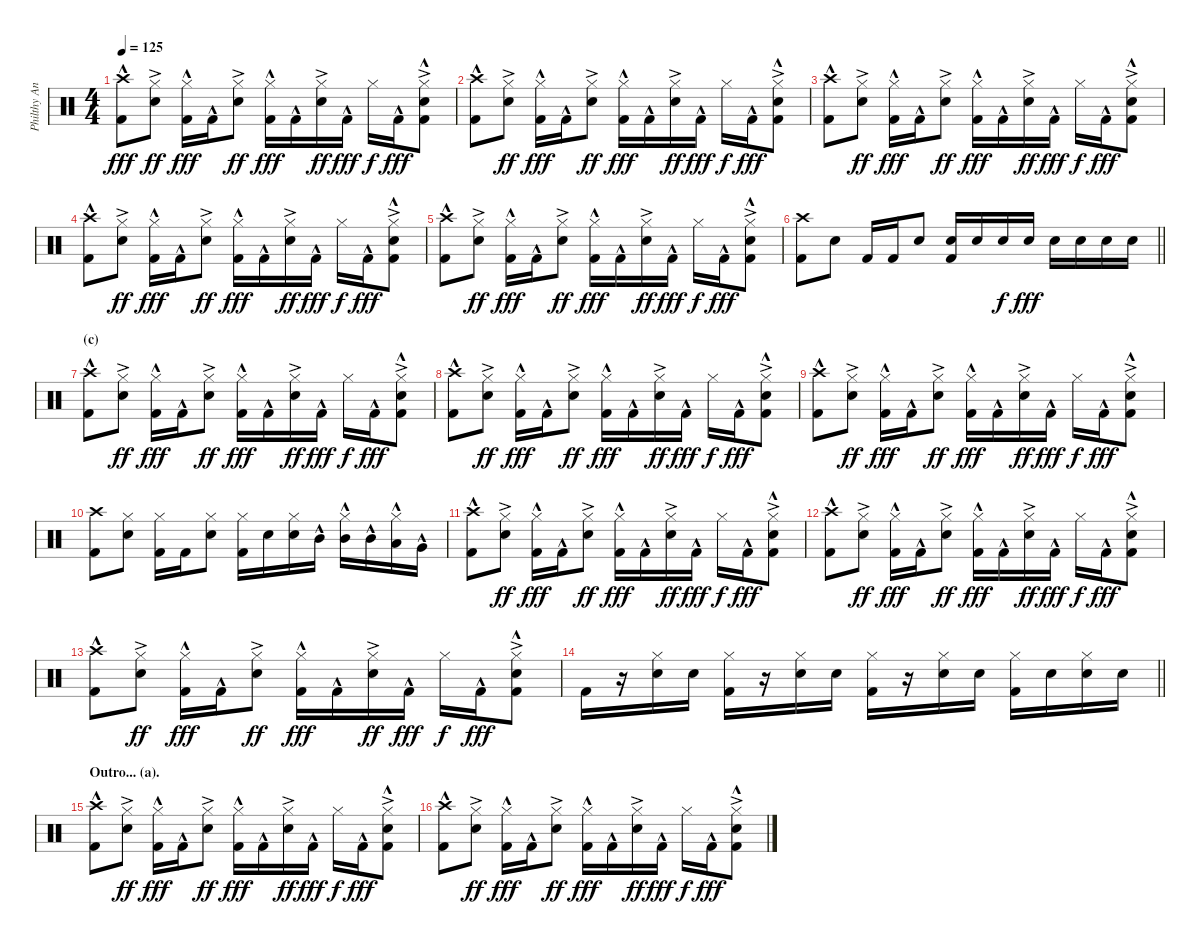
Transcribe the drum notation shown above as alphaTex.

\track ("Philthy Animal Taylor" "Philthy An") {instrument percussion}
\staff {score}
\articulation defaults
\ts (4 4)
\tempo 125
\clef neutral
\ks c
("Crash high (hit)" "Kick (hit) 2"{hac}).8{dy fff} ("Hi-Hat (closed)" "Electric Snare (hit)"{ac}).8{dy ff} ("Hi-Hat (closed)" "Kick (hit) 2"{hac}).16{dy fff} "Kick (hit) 2"{hac}.16 ("Hi-Hat (closed)" "Electric Snare (hit)"{ac}).8{dy ff} ("Hi-Hat (closed)" "Kick (hit) 2"{hac}).16{dy fff} "Kick (hit) 2"{hac}.16 ("Hi-Hat (closed)" "Electric Snare (hit)"{ac}).16{dy ff} "Kick (hit) 2"{hac}.16{dy fff} "Hi-Hat (closed)".16{dy f} "Kick (hit) 2"{hac}.16{dy fff} ("Hi-Hat (closed)" "Electric Snare (hit)"{ac} "Kick (hit) 2"{hac}).8 |
("Crash high (hit)" "Kick (hit) 2"{hac}).8 ("Hi-Hat (closed)" "Electric Snare (hit)"{ac}).8{dy ff} ("Hi-Hat (closed)" "Kick (hit) 2"{hac}).16{dy fff} "Kick (hit) 2"{hac}.16 ("Hi-Hat (closed)" "Electric Snare (hit)"{ac}).8{dy ff} ("Hi-Hat (closed)" "Kick (hit) 2"{hac}).16{dy fff} "Kick (hit) 2"{hac}.16 ("Hi-Hat (closed)" "Electric Snare (hit)"{ac}).16{dy ff} "Kick (hit) 2"{hac}.16{dy fff} "Hi-Hat (closed)".16{dy f} "Kick (hit) 2"{hac}.16{dy fff} ("Hi-Hat (closed)" "Electric Snare (hit)"{ac} "Kick (hit) 2"{hac}).8 |
("Crash high (hit)" "Kick (hit) 2"{hac}).8 ("Hi-Hat (closed)" "Electric Snare (hit)"{ac}).8{dy ff} ("Hi-Hat (closed)" "Kick (hit) 2"{hac}).16{dy fff} "Kick (hit) 2"{hac}.16 ("Hi-Hat (closed)" "Electric Snare (hit)"{ac}).8{dy ff} ("Hi-Hat (closed)" "Kick (hit) 2"{hac}).16{dy fff} "Kick (hit) 2"{hac}.16 ("Hi-Hat (closed)" "Electric Snare (hit)"{ac}).16{dy ff} "Kick (hit) 2"{hac}.16{dy fff} "Hi-Hat (closed)".16{dy f} "Kick (hit) 2"{hac}.16{dy fff} ("Hi-Hat (closed)" "Electric Snare (hit)"{ac} "Kick (hit) 2"{hac}).8 |
("Crash high (hit)" "Kick (hit) 2"{hac}).8 ("Hi-Hat (closed)" "Electric Snare (hit)"{ac}).8{dy ff} ("Hi-Hat (closed)" "Kick (hit) 2"{hac}).16{dy fff} "Kick (hit) 2"{hac}.16 ("Hi-Hat (closed)" "Electric Snare (hit)"{ac}).8{dy ff} ("Hi-Hat (closed)" "Kick (hit) 2"{hac}).16{dy fff} "Kick (hit) 2"{hac}.16 ("Hi-Hat (closed)" "Electric Snare (hit)"{ac}).16{dy ff} "Kick (hit) 2"{hac}.16{dy fff} "Hi-Hat (closed)".16{dy f} "Kick (hit) 2"{hac}.16{dy fff} ("Hi-Hat (closed)" "Electric Snare (hit)"{ac} "Kick (hit) 2"{hac}).8 |
("Crash high (hit)" "Kick (hit) 2"{hac}).8 ("Hi-Hat (closed)" "Electric Snare (hit)"{ac}).8{dy ff} ("Hi-Hat (closed)" "Kick (hit) 2"{hac}).16{dy fff} "Kick (hit) 2"{hac}.16 ("Hi-Hat (closed)" "Electric Snare (hit)"{ac}).8{dy ff} ("Hi-Hat (closed)" "Kick (hit) 2"{hac}).16{dy fff} "Kick (hit) 2"{hac}.16 ("Hi-Hat (closed)" "Electric Snare (hit)"{ac}).16{dy ff} "Kick (hit) 2"{hac}.16{dy fff} "Hi-Hat (closed)".16{dy f} "Kick (hit) 2"{hac}.16{dy fff} ("Hi-Hat (closed)" "Electric Snare (hit)"{ac} "Kick (hit) 2"{hac}).8 |
\barLineRight lightlight
("Crash high (hit)" "Kick (hit) 2").8 "Electric Snare (hit)".8 "Kick (hit) 2".16 "Kick (hit) 2".16 "Electric Snare (hit)".8 ("Electric Snare (hit)" "Kick (hit) 2").16 "Electric Snare (hit)".16 "Electric Snare (hit)".16{dy f} "Electric Snare (hit)".16{dy fff} "Electric Snare (hit)".16 "Electric Snare (hit)".16 "Electric Snare (hit)".16 "Electric Snare (hit)".16 |
\section ("" "(c)")
("Crash high (hit)" "Kick (hit) 2"{hac}).8 ("Hi-Hat (closed)" "Electric Snare (hit)"{ac}).8{dy ff} ("Hi-Hat (closed)" "Kick (hit) 2"{hac}).16{dy fff} "Kick (hit) 2"{hac}.16 ("Hi-Hat (closed)" "Electric Snare (hit)"{ac}).8{dy ff} ("Hi-Hat (closed)" "Kick (hit) 2"{hac}).16{dy fff} "Kick (hit) 2"{hac}.16 ("Hi-Hat (closed)" "Electric Snare (hit)"{ac}).16{dy ff} "Kick (hit) 2"{hac}.16{dy fff} "Hi-Hat (closed)".16{dy f} "Kick (hit) 2"{hac}.16{dy fff} ("Hi-Hat (closed)" "Electric Snare (hit)"{ac} "Kick (hit) 2"{hac}).8 |
("Crash high (hit)" "Kick (hit) 2"{hac}).8 ("Hi-Hat (closed)" "Electric Snare (hit)"{ac}).8{dy ff} ("Hi-Hat (closed)" "Kick (hit) 2"{hac}).16{dy fff} "Kick (hit) 2"{hac}.16 ("Hi-Hat (closed)" "Electric Snare (hit)"{ac}).8{dy ff} ("Hi-Hat (closed)" "Kick (hit) 2"{hac}).16{dy fff} "Kick (hit) 2"{hac}.16 ("Hi-Hat (closed)" "Electric Snare (hit)"{ac}).16{dy ff} "Kick (hit) 2"{hac}.16{dy fff} "Hi-Hat (closed)".16{dy f} "Kick (hit) 2"{hac}.16{dy fff} ("Hi-Hat (closed)" "Electric Snare (hit)"{ac} "Kick (hit) 2"{hac}).8 |
("Crash high (hit)" "Kick (hit) 2"{hac}).8 ("Hi-Hat (closed)" "Electric Snare (hit)"{ac}).8{dy ff} ("Hi-Hat (closed)" "Kick (hit) 2"{hac}).16{dy fff} "Kick (hit) 2"{hac}.16 ("Hi-Hat (closed)" "Electric Snare (hit)"{ac}).8{dy ff} ("Hi-Hat (closed)" "Kick (hit) 2"{hac}).16{dy fff} "Kick (hit) 2"{hac}.16 ("Hi-Hat (closed)" "Electric Snare (hit)"{ac}).16{dy ff} "Kick (hit) 2"{hac}.16{dy fff} "Hi-Hat (closed)".16{dy f} "Kick (hit) 2"{hac}.16{dy fff} ("Hi-Hat (closed)" "Electric Snare (hit)"{ac} "Kick (hit) 2"{hac}).8 |
("Crash high (hit)" "Kick (hit) 2").8 ("Hi-Hat (closed)" "Electric Snare (hit)").8 ("Hi-Hat (closed)" "Kick (hit) 2").16 "Kick (hit) 2".16 ("Hi-Hat (closed)" "Electric Snare (hit)").8 ("Hi-Hat (closed)" "Kick (hit) 2").16 "Electric Snare (hit)".16 ("Hi-Hat (closed)" "Electric Snare (hit)").16 "Mid Tom (hit)"{hac}.16 ("Hi-Hat (closed)" "Mid Tom (hit)"{hac}).16 "Mid Tom (hit)"{hac}.16 ("Hi-Hat (closed)" "Low Tom (hit)"{hac}).16 "Very Low Tom (hit)"{hac}.16 |
("Crash high (hit)" "Kick (hit) 2"{hac}).8 ("Hi-Hat (closed)" "Electric Snare (hit)"{ac}).8{dy ff} ("Hi-Hat (closed)" "Kick (hit) 2"{hac}).16{dy fff} "Kick (hit) 2"{hac}.16 ("Hi-Hat (closed)" "Electric Snare (hit)"{ac}).8{dy ff} ("Hi-Hat (closed)" "Kick (hit) 2"{hac}).16{dy fff} "Kick (hit) 2"{hac}.16 ("Hi-Hat (closed)" "Electric Snare (hit)"{ac}).16{dy ff} "Kick (hit) 2"{hac}.16{dy fff} "Hi-Hat (closed)".16{dy f} "Kick (hit) 2"{hac}.16{dy fff} ("Hi-Hat (closed)" "Electric Snare (hit)"{ac} "Kick (hit) 2"{hac}).8 |
("Crash high (hit)" "Kick (hit) 2"{hac}).8 ("Hi-Hat (closed)" "Electric Snare (hit)"{ac}).8{dy ff} ("Hi-Hat (closed)" "Kick (hit) 2"{hac}).16{dy fff} "Kick (hit) 2"{hac}.16 ("Hi-Hat (closed)" "Electric Snare (hit)"{ac}).8{dy ff} ("Hi-Hat (closed)" "Kick (hit) 2"{hac}).16{dy fff} "Kick (hit) 2"{hac}.16 ("Hi-Hat (closed)" "Electric Snare (hit)"{ac}).16{dy ff} "Kick (hit) 2"{hac}.16{dy fff} "Hi-Hat (closed)".16{dy f} "Kick (hit) 2"{hac}.16{dy fff} ("Hi-Hat (closed)" "Electric Snare (hit)"{ac} "Kick (hit) 2"{hac}).8 |
("Crash high (hit)" "Kick (hit) 2"{hac}).8 ("Hi-Hat (closed)" "Electric Snare (hit)"{ac}).8{dy ff} ("Hi-Hat (closed)" "Kick (hit) 2"{hac}).16{dy fff} "Kick (hit) 2"{hac}.16 ("Hi-Hat (closed)" "Electric Snare (hit)"{ac}).8{dy ff} ("Hi-Hat (closed)" "Kick (hit) 2"{hac}).16{dy fff} "Kick (hit) 2"{hac}.16 ("Hi-Hat (closed)" "Electric Snare (hit)"{ac}).16{dy ff} "Kick (hit) 2"{hac}.16{dy fff} "Hi-Hat (closed)".16{dy f} "Kick (hit) 2"{hac}.16{dy fff} ("Hi-Hat (closed)" "Electric Snare (hit)"{ac} "Kick (hit) 2"{hac}).8 |
\barLineRight lightlight "Kick (hit) 2".16
r.16 ("Hi-Hat (closed)" "Electric Snare (hit)").16 "Electric Snare (hit)".16 ("Hi-Hat (closed)" "Kick (hit) 2").16 r.16 ("Hi-Hat (closed)" "Electric Snare (hit)").16 "Electric Snare (hit)".16 ("Hi-Hat (closed)" "Kick (hit) 2").16 r.16 ("Hi-Hat (closed)" "Electric Snare (hit)").16 "Electric Snare (hit)".16 ("Hi-Hat (closed)" "Kick (hit) 2").16 "Electric Snare (hit)".16 ("Hi-Hat (closed)" "Electric Snare (hit)").16 "Electric Snare (hit)".16 |
\section ("" "Outro... (a).")
("Crash high (hit)" "Kick (hit) 2"{hac}).8 ("Hi-Hat (closed)" "Electric Snare (hit)"{ac}).8{dy ff} ("Hi-Hat (closed)" "Kick (hit) 2"{hac}).16{dy fff} "Kick (hit) 2"{hac}.16 ("Hi-Hat (closed)" "Electric Snare (hit)"{ac}).8{dy ff} ("Hi-Hat (closed)" "Kick (hit) 2"{hac}).16{dy fff} "Kick (hit) 2"{hac}.16 ("Hi-Hat (closed)" "Electric Snare (hit)"{ac}).16{dy ff} "Kick (hit) 2"{hac}.16{dy fff} "Hi-Hat (closed)".16{dy f} "Kick (hit) 2"{hac}.16{dy fff} ("Hi-Hat (closed)" "Electric Snare (hit)"{ac} "Kick (hit) 2"{hac}).8 |
("Crash high (hit)" "Kick (hit) 2"{hac}).8 ("Hi-Hat (closed)" "Electric Snare (hit)"{ac}).8{dy ff} ("Hi-Hat (closed)" "Kick (hit) 2"{hac}).16{dy fff} "Kick (hit) 2"{hac}.16 ("Hi-Hat (closed)" "Electric Snare (hit)"{ac}).8{dy ff} ("Hi-Hat (closed)" "Kick (hit) 2"{hac}).16{dy fff} "Kick (hit) 2"{hac}.16 ("Hi-Hat (closed)" "Electric Snare (hit)"{ac}).16{dy ff} "Kick (hit) 2"{hac}.16{dy fff} "Hi-Hat (closed)".16{dy f} "Kick (hit) 2"{hac}.16{dy fff} ("Hi-Hat (closed)" "Electric Snare (hit)"{ac} "Kick (hit) 2"{hac}).8
